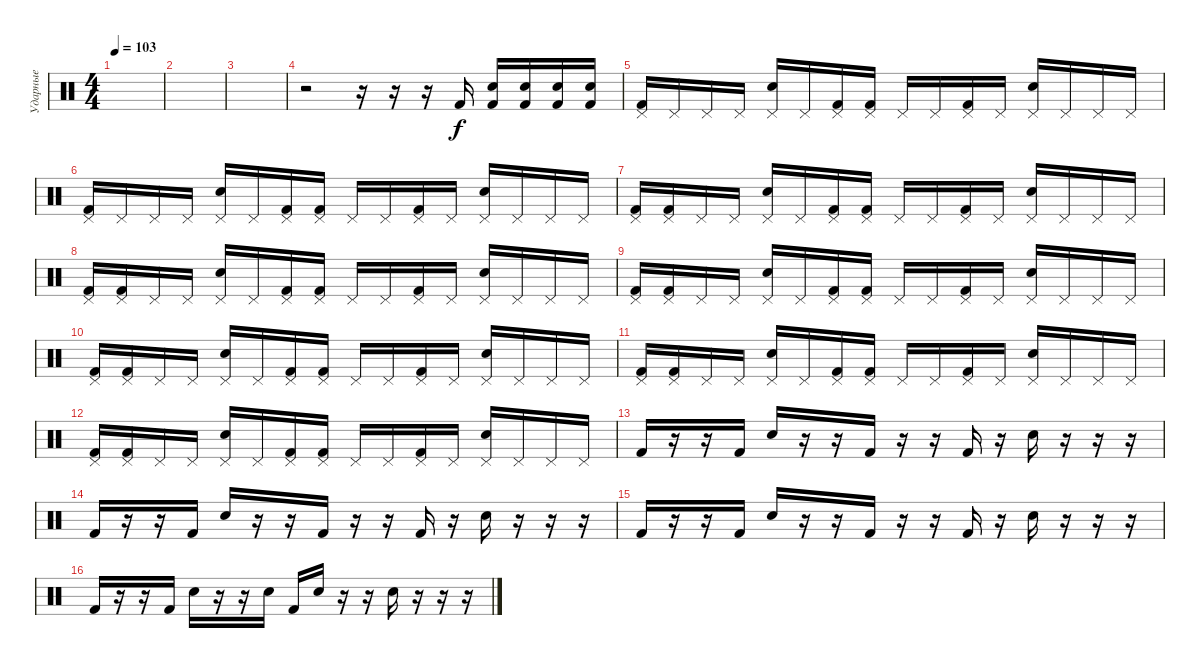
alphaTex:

\track ("Ударные" "Ударные") {instrument percussion}
\staff {score}
\articulation defaults
\ts (4 4)
\tempo 103
\clef neutral
\ks c
|
|
|
r.2 r.16 r.16 r.16 "Kick (hit) 2".16 ("Snare (hit) 2" "Kick (hit) 2").16 ("Snare (hit) 2" "Kick (hit) 2").16 ("Snare (hit) 2" "Kick (hit) 2").16 ("Snare (hit) 2" "Kick (hit) 2").16 |
("Pedal Hi-Hat (hit)" "Kick (hit) 2").16 "Pedal Hi-Hat (hit)".16 "Pedal Hi-Hat (hit)".16 "Pedal Hi-Hat (hit)".16 ("Pedal Hi-Hat (hit)" "Snare (hit) 2").16 "Pedal Hi-Hat (hit)".16 ("Pedal Hi-Hat (hit)" "Kick (hit) 2").16 ("Pedal Hi-Hat (hit)" "Kick (hit) 2").16 "Pedal Hi-Hat (hit)".16 "Pedal Hi-Hat (hit)".16 ("Pedal Hi-Hat (hit)" "Kick (hit) 2").16 "Pedal Hi-Hat (hit)".16 ("Pedal Hi-Hat (hit)" "Snare (hit) 2").16 "Pedal Hi-Hat (hit)".16 "Pedal Hi-Hat (hit)".16 "Pedal Hi-Hat (hit)".16 |
("Pedal Hi-Hat (hit)" "Kick (hit) 2").16 "Pedal Hi-Hat (hit)".16 "Pedal Hi-Hat (hit)".16 "Pedal Hi-Hat (hit)".16 ("Pedal Hi-Hat (hit)" "Snare (hit) 2").16 "Pedal Hi-Hat (hit)".16 ("Pedal Hi-Hat (hit)" "Kick (hit) 2").16 ("Pedal Hi-Hat (hit)" "Kick (hit) 2").16 "Pedal Hi-Hat (hit)".16 "Pedal Hi-Hat (hit)".16 ("Pedal Hi-Hat (hit)" "Kick (hit) 2").16 "Pedal Hi-Hat (hit)".16 ("Pedal Hi-Hat (hit)" "Snare (hit) 2").16 "Pedal Hi-Hat (hit)".16 "Pedal Hi-Hat (hit)".16 "Pedal Hi-Hat (hit)".16 |
("Pedal Hi-Hat (hit)" "Kick (hit) 2").16 ("Pedal Hi-Hat (hit)" "Kick (hit) 2").16 "Pedal Hi-Hat (hit)".16 "Pedal Hi-Hat (hit)".16 ("Pedal Hi-Hat (hit)" "Snare (hit) 2").16 "Pedal Hi-Hat (hit)".16 ("Pedal Hi-Hat (hit)" "Kick (hit) 2").16 ("Pedal Hi-Hat (hit)" "Kick (hit) 2").16 "Pedal Hi-Hat (hit)".16 "Pedal Hi-Hat (hit)".16 ("Pedal Hi-Hat (hit)" "Kick (hit) 2").16 "Pedal Hi-Hat (hit)".16 ("Pedal Hi-Hat (hit)" "Snare (hit) 2").16 "Pedal Hi-Hat (hit)".16 "Pedal Hi-Hat (hit)".16 "Pedal Hi-Hat (hit)".16 |
("Pedal Hi-Hat (hit)" "Kick (hit) 2").16 ("Pedal Hi-Hat (hit)" "Kick (hit) 2").16 "Pedal Hi-Hat (hit)".16 "Pedal Hi-Hat (hit)".16 ("Pedal Hi-Hat (hit)" "Snare (hit) 2").16 "Pedal Hi-Hat (hit)".16 ("Pedal Hi-Hat (hit)" "Kick (hit) 2").16 ("Pedal Hi-Hat (hit)" "Kick (hit) 2").16 "Pedal Hi-Hat (hit)".16 "Pedal Hi-Hat (hit)".16 ("Pedal Hi-Hat (hit)" "Kick (hit) 2").16 "Pedal Hi-Hat (hit)".16 ("Pedal Hi-Hat (hit)" "Snare (hit) 2").16 "Pedal Hi-Hat (hit)".16 "Pedal Hi-Hat (hit)".16 "Pedal Hi-Hat (hit)".16 |
("Pedal Hi-Hat (hit)" "Kick (hit) 2").16 ("Pedal Hi-Hat (hit)" "Kick (hit) 2").16 "Pedal Hi-Hat (hit)".16 "Pedal Hi-Hat (hit)".16 ("Pedal Hi-Hat (hit)" "Snare (hit) 2").16 "Pedal Hi-Hat (hit)".16 ("Pedal Hi-Hat (hit)" "Kick (hit) 2").16 ("Pedal Hi-Hat (hit)" "Kick (hit) 2").16 "Pedal Hi-Hat (hit)".16 "Pedal Hi-Hat (hit)".16 ("Pedal Hi-Hat (hit)" "Kick (hit) 2").16 "Pedal Hi-Hat (hit)".16 ("Pedal Hi-Hat (hit)" "Snare (hit) 2").16 "Pedal Hi-Hat (hit)".16 "Pedal Hi-Hat (hit)".16 "Pedal Hi-Hat (hit)".16 |
("Pedal Hi-Hat (hit)" "Kick (hit) 2").16 ("Pedal Hi-Hat (hit)" "Kick (hit) 2").16 "Pedal Hi-Hat (hit)".16 "Pedal Hi-Hat (hit)".16 ("Pedal Hi-Hat (hit)" "Snare (hit) 2").16 "Pedal Hi-Hat (hit)".16 ("Pedal Hi-Hat (hit)" "Kick (hit) 2").16 ("Pedal Hi-Hat (hit)" "Kick (hit) 2").16 "Pedal Hi-Hat (hit)".16 "Pedal Hi-Hat (hit)".16 ("Pedal Hi-Hat (hit)" "Kick (hit) 2").16 "Pedal Hi-Hat (hit)".16 ("Pedal Hi-Hat (hit)" "Snare (hit) 2").16 "Pedal Hi-Hat (hit)".16 "Pedal Hi-Hat (hit)".16 "Pedal Hi-Hat (hit)".16 |
("Pedal Hi-Hat (hit)" "Kick (hit) 2").16 ("Pedal Hi-Hat (hit)" "Kick (hit) 2").16 "Pedal Hi-Hat (hit)".16 "Pedal Hi-Hat (hit)".16 ("Pedal Hi-Hat (hit)" "Snare (hit) 2").16 "Pedal Hi-Hat (hit)".16 ("Pedal Hi-Hat (hit)" "Kick (hit) 2").16 ("Pedal Hi-Hat (hit)" "Kick (hit) 2").16 "Pedal Hi-Hat (hit)".16 "Pedal Hi-Hat (hit)".16 ("Pedal Hi-Hat (hit)" "Kick (hit) 2").16 "Pedal Hi-Hat (hit)".16 ("Pedal Hi-Hat (hit)" "Snare (hit) 2").16 "Pedal Hi-Hat (hit)".16 "Pedal Hi-Hat (hit)".16 "Pedal Hi-Hat (hit)".16 |
("Pedal Hi-Hat (hit)" "Kick (hit) 2").16 ("Pedal Hi-Hat (hit)" "Kick (hit) 2").16 "Pedal Hi-Hat (hit)".16 "Pedal Hi-Hat (hit)".16 ("Pedal Hi-Hat (hit)" "Snare (hit) 2").16 "Pedal Hi-Hat (hit)".16 ("Pedal Hi-Hat (hit)" "Kick (hit) 2").16 ("Pedal Hi-Hat (hit)" "Kick (hit) 2").16 "Pedal Hi-Hat (hit)".16 "Pedal Hi-Hat (hit)".16 ("Pedal Hi-Hat (hit)" "Kick (hit) 2").16 "Pedal Hi-Hat (hit)".16 ("Pedal Hi-Hat (hit)" "Snare (hit) 2").16 "Pedal Hi-Hat (hit)".16 "Pedal Hi-Hat (hit)".16 "Pedal Hi-Hat (hit)".16 |
"Kick (hit) 2".16 r.16 r.16 "Kick (hit) 2".16 "Snare (hit) 2".16 r.16 r.16 "Kick (hit) 2".16 r.16 r.16 "Kick (hit) 2".16 r.16 "Snare (hit) 2".16 r.16 r.16 r.16 |
"Kick (hit) 2".16 r.16 r.16 "Kick (hit) 2".16 "Snare (hit) 2".16 r.16 r.16 "Kick (hit) 2".16 r.16 r.16 "Kick (hit) 2".16 r.16 "Snare (hit) 2".16 r.16 r.16 r.16 |
"Kick (hit) 2".16 r.16 r.16 "Kick (hit) 2".16 "Snare (hit) 2".16 r.16 r.16 "Kick (hit) 2".16 r.16 r.16 "Kick (hit) 2".16 r.16 "Snare (hit) 2".16 r.16 r.16 r.16 |
"Kick (hit) 2".16 r.16 r.16 "Kick (hit) 2".16 "Snare (hit) 2".16 r.16 r.16 "Snare (hit) 2".16 "Kick (hit) 2".16 "Snare (hit) 2".16 r.16 r.16 "Snare (hit) 2".16 r.16 r.16 r.16
